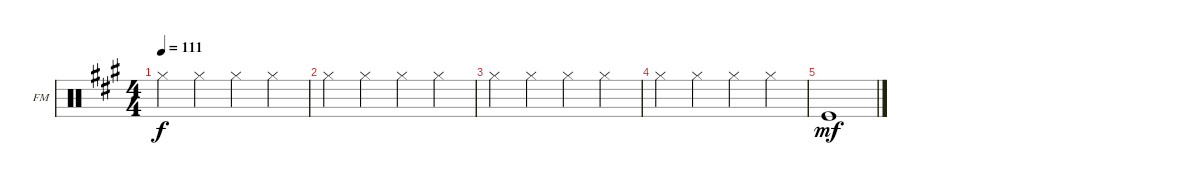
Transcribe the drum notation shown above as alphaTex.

\defaultSystemsLayout 4
\bracketExtendMode groupsimilarinstruments
\firstSystemTrackNameOrientation horizontal
\otherSystemsTrackNameOrientation horizontal
\track ("Fabrizio Moretti" "FM") {instrument percussion}
\staff {score}
\articulation defaults
\ts (4 4)
\tempo 111
\clef neutral
\ks a "Hi-Hat (closed)".4{dy f} "Hi-Hat (closed)".4 "Hi-Hat (closed)".4 "Hi-Hat (closed)".4
|
"Hi-Hat (closed)".4 "Hi-Hat (closed)".4 "Hi-Hat (closed)".4 "Hi-Hat (closed)".4 |
"Hi-Hat (closed)".4 "Hi-Hat (closed)".4 "Hi-Hat (closed)".4 "Hi-Hat (closed)".4 |
"Hi-Hat (closed)".4 "Hi-Hat (closed)".4 "Hi-Hat (closed)".4 "Hi-Hat (closed)".4 |
"Kick (hit)".1{dy mf}
